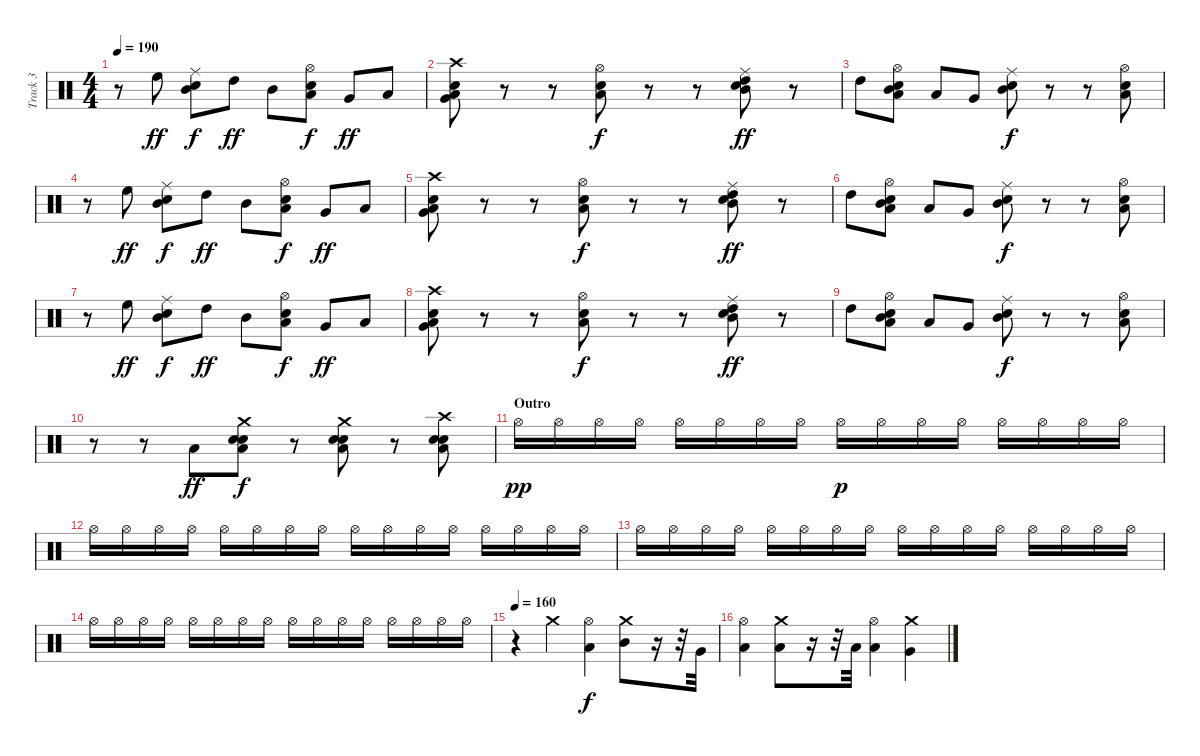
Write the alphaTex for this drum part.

\track ("Track 3" "Track 3") {instrument percussion}
\staff {score}
\articulation defaults
\ts (4 4)
\tempo 190
\clef neutral
\ks c
r.8{dy f} "High Floor Tom (hit)".8{dy ff} ("Mid Tom (hit)" "Snare (hit) 2" "Ride (middle)").8{dy f} "High Tom (hit)".8{dy ff} "Mid Tom (hit)".8 ("Low Tom (hit)" "Snare (hit) 2" "Hi-Hat (open)").8{dy f} "Very Low Tom (hit)".8{dy ff} "Low Floor Tom (hit)".8 |
("Very Low Tom (hit)" "Snare (hit) 2" "Crash high (hit)" "Low Tom (hit)").8 r.8 r.8 ("Low Tom (hit)" "Snare (hit) 2" "Hi-Hat (open)").8{dy f} r.8 r.8 ("Mid Tom (hit)" "Snare (hit) 2" "Ride (middle)" "High Tom (hit)").8{dy ff} r.8 |
"High Tom (hit)".8 ("Low Tom (hit)" "Snare (hit) 2" "Hi-Hat (open)" "Mid Tom (hit)").8 "Low Tom (hit)".8 "Very Low Tom (hit)".8 ("Mid Tom (hit)" "Snare (hit) 2" "Ride (middle)").8{dy f} r.8 r.8 ("Low Tom (hit)" "Snare (hit) 2" "Hi-Hat (open)").8 |
r.8 "High Floor Tom (hit)".8{dy ff} ("Mid Tom (hit)" "Snare (hit) 2" "Ride (middle)").8{dy f} "High Tom (hit)".8{dy ff} "Mid Tom (hit)".8 ("Low Tom (hit)" "Snare (hit) 2" "Hi-Hat (open)").8{dy f} "Very Low Tom (hit)".8{dy ff} "Low Floor Tom (hit)".8 |
("Very Low Tom (hit)" "Snare (hit) 2" "Crash high (hit)" "Low Tom (hit)").8 r.8 r.8 ("Low Tom (hit)" "Snare (hit) 2" "Hi-Hat (open)").8{dy f} r.8 r.8 ("Mid Tom (hit)" "Snare (hit) 2" "Ride (middle)" "High Tom (hit)").8{dy ff} r.8 |
"High Tom (hit)".8 ("Low Tom (hit)" "Snare (hit) 2" "Hi-Hat (open)" "Mid Tom (hit)").8 "Low Tom (hit)".8 "Very Low Tom (hit)".8 ("Mid Tom (hit)" "Snare (hit) 2" "Ride (middle)").8{dy f} r.8 r.8 ("Low Tom (hit)" "Snare (hit) 2" "Hi-Hat (open)").8 |
r.8 "High Floor Tom (hit)".8{dy ff} ("Mid Tom (hit)" "Snare (hit) 2" "Ride (middle)").8{dy f} "High Tom (hit)".8{dy ff} "Mid Tom (hit)".8 ("Low Tom (hit)" "Snare (hit) 2" "Hi-Hat (open)").8{dy f} "Very Low Tom (hit)".8{dy ff} "Low Floor Tom (hit)".8 |
("Very Low Tom (hit)" "Snare (hit) 2" "Crash high (hit)" "Low Tom (hit)").8 r.8 r.8 ("Low Tom (hit)" "Snare (hit) 2" "Hi-Hat (open)").8{dy f} r.8 r.8 ("Mid Tom (hit)" "Snare (hit) 2" "Ride (middle)" "High Tom (hit)").8{dy ff} r.8 |
"High Tom (hit)".8 ("Low Tom (hit)" "Snare (hit) 2" "Hi-Hat (open)" "Mid Tom (hit)").8 "Low Tom (hit)".8 "Very Low Tom (hit)".8 ("Mid Tom (hit)" "Snare (hit) 2" "Ride (middle)").8{dy f} r.8 r.8 ("Low Tom (hit)" "Snare (hit) 2" "Hi-Hat (open)").8 |
r.8 r.8 "Low Floor Tom (hit)".8{dy ff} ("Electric Snare (hit)" "Low Tom (hit)" "Snare (hit) 2" "Crash medium (hit)").8{dy f} r.8 ("Electric Snare (hit)" "Low Tom (hit)" "Crash medium (hit)" "Snare (hit) 2").8 r.8 ("Low Tom (hit)" "Snare (hit) 2" "Crash high (hit)" "Electric Snare (hit)").8 |
\section ("" "Outro")
"Hi-Hat (open)".16{dy pp} "Hi-Hat (open)".16 "Hi-Hat (open)".16 "Hi-Hat (open)".16 "Hi-Hat (open)".16 "Hi-Hat (open)".16 "Hi-Hat (open)".16 "Hi-Hat (open)".16 "Hi-Hat (open)".16{dy p} "Hi-Hat (open)".16 "Hi-Hat (open)".16 "Hi-Hat (open)".16 "Hi-Hat (open)".16 "Hi-Hat (open)".16 "Hi-Hat (open)".16 "Hi-Hat (open)".16 |
"Hi-Hat (open)".16 "Hi-Hat (open)".16 "Hi-Hat (open)".16 "Hi-Hat (open)".16 "Hi-Hat (open)".16 "Hi-Hat (open)".16 "Hi-Hat (open)".16 "Hi-Hat (open)".16 "Hi-Hat (open)".16 "Hi-Hat (open)".16 "Hi-Hat (open)".16 "Hi-Hat (open)".16 "Hi-Hat (open)".16 "Hi-Hat (open)".16 "Hi-Hat (open)".16 "Hi-Hat (open)".16 |
"Hi-Hat (open)".16 "Hi-Hat (open)".16 "Hi-Hat (open)".16 "Hi-Hat (open)".16 "Hi-Hat (open)".16 "Hi-Hat (open)".16 "Hi-Hat (open)".16 "Hi-Hat (open)".16 "Hi-Hat (open)".16 "Hi-Hat (open)".16 "Hi-Hat (open)".16 "Hi-Hat (open)".16 "Hi-Hat (open)".16 "Hi-Hat (open)".16 "Hi-Hat (open)".16 "Hi-Hat (open)".16 |
"Hi-Hat (open)".16 "Hi-Hat (open)".16 "Hi-Hat (open)".16 "Hi-Hat (open)".16 "Hi-Hat (open)".16 "Hi-Hat (open)".16 "Hi-Hat (open)".16 "Hi-Hat (open)".16 "Hi-Hat (open)".16 "Hi-Hat (open)".16 "Hi-Hat (open)".16 "Hi-Hat (open)".16 "Hi-Hat (open)".16 "Hi-Hat (open)".16 "Hi-Hat (open)".16 "Hi-Hat (open)".16 |
\tempo 160
r.4 "Crash medium (hit)".4 ("Low Floor Tom (hit)" "Hi-Hat (open)").4{dy f} ("Mid Tom (hit)" "Crash medium (hit)").8 r.16 r.32 "Very Low Tom (hit)".32 |
("Low Floor Tom (hit)" "Hi-Hat (open)").4 ("Low Tom (hit)" "Crash medium (hit)").8 r.16 r.32 "Low Floor Tom (hit)".32 ("Low Floor Tom (hit)" "Hi-Hat (open)").4 ("Very Low Tom (hit)" "Crash medium (hit)").4
